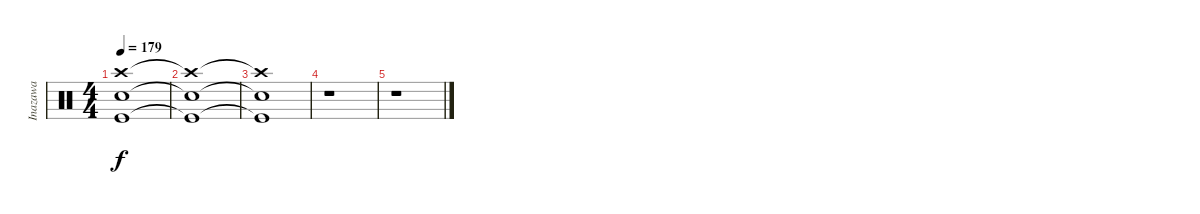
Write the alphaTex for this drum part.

\track ("Inazawa" "Inazawa") {instrument percussion}
\staff {score}
\articulation defaults
\ts (4 4)
\tempo 179
\clef neutral
\ks c
("Crash high (hit)"{t} "Snare (hit) 2"{t} "Kick (hit)"{t}).1{dy f} |
("Crash high (hit)"{t} "Snare (hit) 2"{t} "Kick (hit)"{t}).1 |
("Crash high (hit)"{t} "Snare (hit) 2"{t} "Kick (hit)"{t}).1 |
r.1 |
r.1
